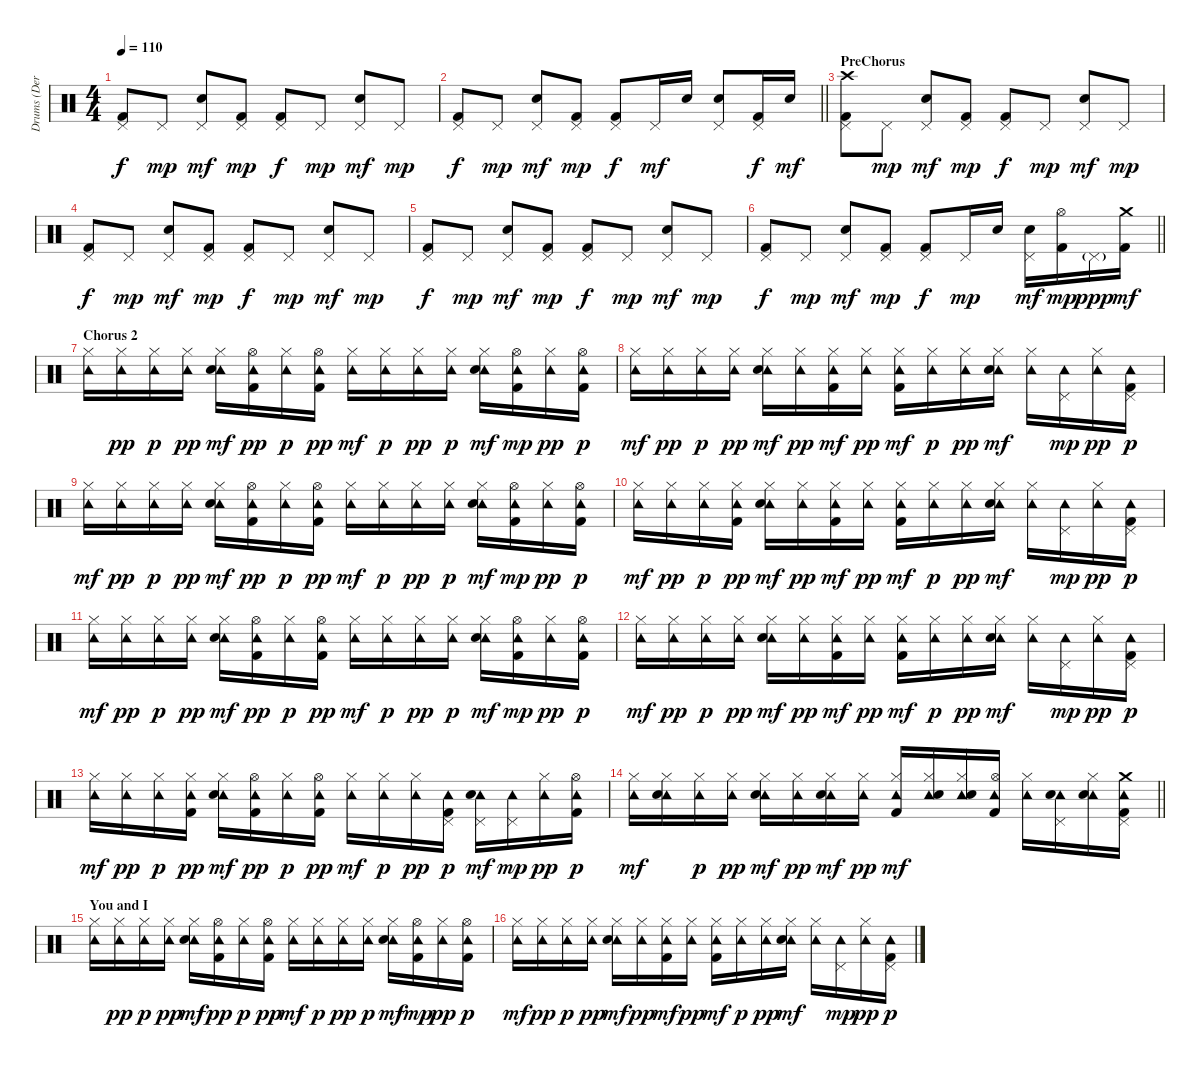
\track ("Drums (Derrick McKenzie)" "Drums (Der") {instrument percussion}
\staff {score}
\articulation defaults
\ts (4 4)
\tempo 110
\clef neutral
\ks c
("Pedal Hi-Hat (hit)" "Kick (hit) 2").8{dy f} "Pedal Hi-Hat (hit)".8{dy mp} ("Pedal Hi-Hat (hit)" "Electric Snare (hit)").8{dy mf} ("Pedal Hi-Hat (hit)" "Kick (hit) 2").8{dy mp} ("Pedal Hi-Hat (hit)" "Kick (hit) 2").8{dy f} "Pedal Hi-Hat (hit)".8{dy mp} ("Pedal Hi-Hat (hit)" "Electric Snare (hit)").8{dy mf} "Pedal Hi-Hat (hit)".8{dy mp} |
\barLineRight lightlight
("Pedal Hi-Hat (hit)" "Kick (hit) 2").8{dy f} "Pedal Hi-Hat (hit)".8{dy mp} ("Pedal Hi-Hat (hit)" "Electric Snare (hit)").8{dy mf} ("Pedal Hi-Hat (hit)" "Kick (hit) 2").8{dy mp} ("Pedal Hi-Hat (hit)" "Kick (hit) 2").8{dy f} "Pedal Hi-Hat (hit)".16{dy mf} "Electric Snare (hit)".16 ("Pedal Hi-Hat (hit)" "Electric Snare (hit)").8 ("Pedal Hi-Hat (hit)" "Kick (hit) 2").16{dy f} "Electric Snare (hit)".16{dy mf} |
\section ("" "PreChorus")
("Pedal Hi-Hat (hit)" "Crash high (hit)" "Kick (hit) 2").8 "Pedal Hi-Hat (hit)".8{dy mp} ("Pedal Hi-Hat (hit)" "Electric Snare (hit)").8{dy mf} ("Pedal Hi-Hat (hit)" "Kick (hit) 2").8{dy mp} ("Pedal Hi-Hat (hit)" "Kick (hit) 2").8{dy f} "Pedal Hi-Hat (hit)".8{dy mp} ("Pedal Hi-Hat (hit)" "Electric Snare (hit)").8{dy mf} "Pedal Hi-Hat (hit)".8{dy mp} |
("Pedal Hi-Hat (hit)" "Kick (hit) 2").8{dy f} "Pedal Hi-Hat (hit)".8{dy mp} ("Pedal Hi-Hat (hit)" "Electric Snare (hit)").8{dy mf} ("Pedal Hi-Hat (hit)" "Kick (hit) 2").8{dy mp} ("Pedal Hi-Hat (hit)" "Kick (hit) 2").8{dy f} "Pedal Hi-Hat (hit)".8{dy mp} ("Pedal Hi-Hat (hit)" "Electric Snare (hit)").8{dy mf} "Pedal Hi-Hat (hit)".8{dy mp} |
("Pedal Hi-Hat (hit)" "Kick (hit) 2").8{dy f} "Pedal Hi-Hat (hit)".8{dy mp} ("Pedal Hi-Hat (hit)" "Electric Snare (hit)").8{dy mf} ("Pedal Hi-Hat (hit)" "Kick (hit) 2").8{dy mp} ("Pedal Hi-Hat (hit)" "Kick (hit) 2").8{dy f} "Pedal Hi-Hat (hit)".8{dy mp} ("Pedal Hi-Hat (hit)" "Electric Snare (hit)").8{dy mf} "Pedal Hi-Hat (hit)".8{dy mp} |
\barLineRight lightlight
("Pedal Hi-Hat (hit)" "Kick (hit) 2").8{dy f} "Pedal Hi-Hat (hit)".8{dy mp} ("Pedal Hi-Hat (hit)" "Electric Snare (hit)").8{dy mf} ("Pedal Hi-Hat (hit)" "Kick (hit) 2").8{dy mp} ("Pedal Hi-Hat (hit)" "Kick (hit) 2").8{dy f} "Pedal Hi-Hat (hit)".16{dy mp} "Electric Snare (hit)".16 ("Pedal Hi-Hat (hit)" "Electric Snare (hit)").16{dy mf} ("Hi-Hat (open)" "Kick (hit) 2").16{dy mp} "Pedal Hi-Hat (hit)"{g}.16{dy ppp} ("Crash medium (hit)" "Kick (hit) 2").16{dy mf} |
\section ("" "Chorus 2")
("Hi-Hat (closed)" "Tambourine (hit)").16 ("Hi-Hat (closed)" "Tambourine (hit)").16{dy pp} ("Hi-Hat (closed)" "Tambourine (hit)").16{dy p} ("Hi-Hat (closed)" "Tambourine (hit)").16{dy pp} ("Hi-Hat (closed)" "Tambourine (hit)" "Electric Snare (hit)").16{dy mf} ("Hi-Hat (open)" "Tambourine (hit)" "Kick (hit) 2").16{dy pp} ("Hi-Hat (closed)" "Tambourine (hit)").16{dy p} ("Hi-Hat (open)" "Tambourine (hit)" "Kick (hit) 2").16{dy pp} ("Hi-Hat (closed)" "Tambourine (hit)").16{dy mf} ("Hi-Hat (closed)" "Tambourine (hit)").16{dy p} ("Hi-Hat (closed)" "Tambourine (hit)").16{dy pp} ("Hi-Hat (closed)" "Tambourine (hit)").16{dy p} ("Hi-Hat (closed)" "Tambourine (hit)" "Electric Snare (hit)").16{dy mf} ("Hi-Hat (open)" "Tambourine (hit)" "Kick (hit) 2").16{dy mp} ("Hi-Hat (closed)" "Tambourine (hit)").16{dy pp} ("Hi-Hat (open)" "Tambourine (hit)" "Kick (hit) 2").16{dy p} |
("Hi-Hat (closed)" "Tambourine (hit)").16{dy mf} ("Hi-Hat (closed)" "Tambourine (hit)").16{dy pp} ("Hi-Hat (closed)" "Tambourine (hit)").16{dy p} ("Hi-Hat (closed)" "Tambourine (hit)").16{dy pp} ("Hi-Hat (closed)" "Tambourine (hit)" "Electric Snare (hit)").16{dy mf} ("Hi-Hat (closed)" "Tambourine (hit)").16{dy pp} ("Hi-Hat (closed)" "Tambourine (hit)" "Kick (hit) 2").16{dy mf} ("Hi-Hat (closed)" "Tambourine (hit)").16{dy pp} ("Hi-Hat (closed)" "Tambourine (hit)" "Kick (hit) 2").16{dy mf} ("Hi-Hat (closed)" "Tambourine (hit)").16{dy p} ("Hi-Hat (closed)" "Tambourine (hit)").16{dy pp} ("Hi-Hat (closed)" "Tambourine (hit)" "Electric Snare (hit)").16{dy mf} ("Hi-Hat (closed)" "Tambourine (hit)").16 ("Pedal Hi-Hat (hit)" "Tambourine (hit)").16{dy mp} ("Hi-Hat (closed)" "Tambourine (hit)").16{dy pp} ("Pedal Hi-Hat (hit)" "Tambourine (hit)" "Kick (hit) 2").16{dy p} |
("Hi-Hat (closed)" "Tambourine (hit)").16{dy mf} ("Hi-Hat (closed)" "Tambourine (hit)").16{dy pp} ("Hi-Hat (closed)" "Tambourine (hit)").16{dy p} ("Hi-Hat (closed)" "Tambourine (hit)").16{dy pp} ("Hi-Hat (closed)" "Tambourine (hit)" "Electric Snare (hit)").16{dy mf} ("Hi-Hat (open)" "Tambourine (hit)" "Kick (hit) 2").16{dy pp} ("Hi-Hat (closed)" "Tambourine (hit)").16{dy p} ("Hi-Hat (open)" "Tambourine (hit)" "Kick (hit) 2").16{dy pp} ("Hi-Hat (closed)" "Tambourine (hit)").16{dy mf} ("Hi-Hat (closed)" "Tambourine (hit)").16{dy p} ("Hi-Hat (closed)" "Tambourine (hit)").16{dy pp} ("Hi-Hat (closed)" "Tambourine (hit)").16{dy p} ("Hi-Hat (closed)" "Tambourine (hit)" "Electric Snare (hit)").16{dy mf} ("Hi-Hat (open)" "Tambourine (hit)" "Kick (hit) 2").16{dy mp} ("Hi-Hat (closed)" "Tambourine (hit)").16{dy pp} ("Hi-Hat (open)" "Tambourine (hit)" "Kick (hit) 2").16{dy p} |
("Hi-Hat (closed)" "Tambourine (hit)").16{dy mf} ("Hi-Hat (closed)" "Tambourine (hit)").16{dy pp} ("Hi-Hat (closed)" "Tambourine (hit)").16{dy p} ("Hi-Hat (closed)" "Tambourine (hit)" "Kick (hit) 2").16{dy pp} ("Hi-Hat (closed)" "Tambourine (hit)" "Electric Snare (hit)").16{dy mf} ("Hi-Hat (closed)" "Tambourine (hit)").16{dy pp} ("Hi-Hat (closed)" "Tambourine (hit)" "Kick (hit) 2").16{dy mf} ("Hi-Hat (closed)" "Tambourine (hit)").16{dy pp} ("Hi-Hat (closed)" "Tambourine (hit)" "Kick (hit) 2").16{dy mf} ("Hi-Hat (closed)" "Tambourine (hit)").16{dy p} ("Hi-Hat (closed)" "Tambourine (hit)").16{dy pp} ("Hi-Hat (closed)" "Tambourine (hit)" "Electric Snare (hit)").16{dy mf} ("Hi-Hat (closed)" "Tambourine (hit)").16 ("Pedal Hi-Hat (hit)" "Tambourine (hit)").16{dy mp} ("Hi-Hat (closed)" "Tambourine (hit)").16{dy pp} ("Pedal Hi-Hat (hit)" "Tambourine (hit)" "Kick (hit) 2").16{dy p} |
("Hi-Hat (closed)" "Tambourine (hit)").16{dy mf} ("Hi-Hat (closed)" "Tambourine (hit)").16{dy pp} ("Hi-Hat (closed)" "Tambourine (hit)").16{dy p} ("Hi-Hat (closed)" "Tambourine (hit)").16{dy pp} ("Hi-Hat (closed)" "Tambourine (hit)" "Electric Snare (hit)").16{dy mf} ("Hi-Hat (open)" "Tambourine (hit)" "Kick (hit) 2").16{dy pp} ("Hi-Hat (closed)" "Tambourine (hit)").16{dy p} ("Hi-Hat (open)" "Tambourine (hit)" "Kick (hit) 2").16{dy pp} ("Hi-Hat (closed)" "Tambourine (hit)").16{dy mf} ("Hi-Hat (closed)" "Tambourine (hit)").16{dy p} ("Hi-Hat (closed)" "Tambourine (hit)").16{dy pp} ("Hi-Hat (closed)" "Tambourine (hit)").16{dy p} ("Hi-Hat (closed)" "Tambourine (hit)" "Electric Snare (hit)").16{dy mf} ("Hi-Hat (open)" "Tambourine (hit)" "Kick (hit) 2").16{dy mp} ("Hi-Hat (closed)" "Tambourine (hit)").16{dy pp} ("Hi-Hat (open)" "Tambourine (hit)" "Kick (hit) 2").16{dy p} |
("Hi-Hat (closed)" "Tambourine (hit)").16{dy mf} ("Hi-Hat (closed)" "Tambourine (hit)").16{dy pp} ("Hi-Hat (closed)" "Tambourine (hit)").16{dy p} ("Hi-Hat (closed)" "Tambourine (hit)").16{dy pp} ("Hi-Hat (closed)" "Tambourine (hit)" "Electric Snare (hit)").16{dy mf} ("Hi-Hat (closed)" "Tambourine (hit)").16{dy pp} ("Hi-Hat (closed)" "Tambourine (hit)" "Kick (hit) 2").16{dy mf} ("Hi-Hat (closed)" "Tambourine (hit)").16{dy pp} ("Hi-Hat (closed)" "Tambourine (hit)" "Kick (hit) 2").16{dy mf} ("Hi-Hat (closed)" "Tambourine (hit)").16{dy p} ("Hi-Hat (closed)" "Tambourine (hit)").16{dy pp} ("Hi-Hat (closed)" "Tambourine (hit)" "Electric Snare (hit)").16{dy mf} ("Hi-Hat (closed)" "Tambourine (hit)").16 ("Pedal Hi-Hat (hit)" "Tambourine (hit)").16{dy mp} ("Hi-Hat (closed)" "Tambourine (hit)").16{dy pp} ("Pedal Hi-Hat (hit)" "Tambourine (hit)" "Kick (hit) 2").16{dy p} |
("Hi-Hat (closed)" "Tambourine (hit)").16{dy mf} ("Hi-Hat (closed)" "Tambourine (hit)").16{dy pp} ("Hi-Hat (closed)" "Tambourine (hit)").16{dy p} ("Hi-Hat (closed)" "Tambourine (hit)" "Kick (hit) 2").16{dy pp} ("Hi-Hat (closed)" "Tambourine (hit)" "Electric Snare (hit)").16{dy mf} ("Hi-Hat (open)" "Tambourine (hit)" "Kick (hit) 2").16{dy pp} ("Hi-Hat (closed)" "Tambourine (hit)").16{dy p} ("Hi-Hat (open)" "Tambourine (hit)" "Kick (hit) 2").16{dy pp} ("Hi-Hat (closed)" "Tambourine (hit)").16{dy mf} ("Hi-Hat (closed)" "Tambourine (hit)").16{dy p} ("Hi-Hat (closed)" "Tambourine (hit)").16{dy pp} ("Pedal Hi-Hat (hit)" "Tambourine (hit)" "Kick (hit) 2").16{dy p} ("Pedal Hi-Hat (hit)" "Tambourine (hit)" "Electric Snare (hit)").16{dy mf} ("Pedal Hi-Hat (hit)" "Tambourine (hit)").16{dy mp} ("Hi-Hat (closed)" "Tambourine (hit)").16{dy pp} ("Hi-Hat (open)" "Tambourine (hit)" "Kick (hit) 2").16{dy p} |
\barLineRight lightlight
("Hi-Hat (closed)" "Tambourine (hit)").16{dy mf} ("Hi-Hat (closed)" "Tambourine (hit)" "Electric Snare (hit)").16 ("Hi-Hat (closed)" "Tambourine (hit)").16{dy p} ("Hi-Hat (closed)" "Tambourine (hit)").16{dy pp} ("Hi-Hat (closed)" "Tambourine (hit)" "Electric Snare (hit)").16{dy mf} ("Hi-Hat (closed)" "Tambourine (hit)").16{dy pp} ("Hi-Hat (closed)" "Tambourine (hit)" "Electric Snare (hit)").16{dy mf} ("Hi-Hat (closed)" "Tambourine (hit)").16{dy pp} ("Hi-Hat (closed)" "Tambourine (hit)" "Kick (hit) 2").16{dy mf} ("Hi-Hat (closed)" "Tambourine (hit)" "Electric Snare (hit)").16 ("Hi-Hat (closed)" "Tambourine (hit)" "Electric Snare (hit)").16 ("Hi-Hat (open)" "Tambourine (hit)" "Kick (hit) 2").16 ("Hi-Hat (closed)" "Tambourine (hit)").16 ("Pedal Hi-Hat (hit)" "Tambourine (hit)" "Electric Snare (hit)").16 ("Hi-Hat (closed)" "Tambourine (hit)" "Electric Snare (hit)").16 ("Pedal Hi-Hat (hit)" "Tambourine (hit)" "Crash medium (hit)" "Kick (hit) 2").16 |
\section ("" "You and I")
("Hi-Hat (closed)" "Tambourine (hit)").16 ("Hi-Hat (closed)" "Tambourine (hit)").16{dy pp} ("Hi-Hat (closed)" "Tambourine (hit)").16{dy p} ("Hi-Hat (closed)" "Tambourine (hit)").16{dy pp} ("Hi-Hat (closed)" "Tambourine (hit)" "Electric Snare (hit)").16{dy mf} ("Hi-Hat (open)" "Tambourine (hit)" "Kick (hit) 2").16{dy pp} ("Hi-Hat (closed)" "Tambourine (hit)").16{dy p} ("Hi-Hat (open)" "Tambourine (hit)" "Kick (hit) 2").16{dy pp} ("Hi-Hat (closed)" "Tambourine (hit)").16{dy mf} ("Hi-Hat (closed)" "Tambourine (hit)").16{dy p} ("Hi-Hat (closed)" "Tambourine (hit)").16{dy pp} ("Hi-Hat (closed)" "Tambourine (hit)").16{dy p} ("Hi-Hat (closed)" "Tambourine (hit)" "Electric Snare (hit)").16{dy mf} ("Hi-Hat (open)" "Tambourine (hit)" "Kick (hit) 2").16{dy mp} ("Hi-Hat (closed)" "Tambourine (hit)").16{dy pp} ("Hi-Hat (open)" "Tambourine (hit)" "Kick (hit) 2").16{dy p} |
("Hi-Hat (closed)" "Tambourine (hit)").16{dy mf} ("Hi-Hat (closed)" "Tambourine (hit)").16{dy pp} ("Hi-Hat (closed)" "Tambourine (hit)").16{dy p} ("Hi-Hat (closed)" "Tambourine (hit)").16{dy pp} ("Hi-Hat (closed)" "Tambourine (hit)" "Electric Snare (hit)").16{dy mf} ("Hi-Hat (closed)" "Tambourine (hit)").16{dy pp} ("Hi-Hat (closed)" "Tambourine (hit)" "Kick (hit) 2").16{dy mf} ("Hi-Hat (closed)" "Tambourine (hit)").16{dy pp} ("Hi-Hat (closed)" "Tambourine (hit)" "Kick (hit) 2").16{dy mf} ("Hi-Hat (closed)" "Tambourine (hit)").16{dy p} ("Hi-Hat (closed)" "Tambourine (hit)").16{dy pp} ("Hi-Hat (closed)" "Tambourine (hit)" "Electric Snare (hit)").16{dy mf} ("Hi-Hat (closed)" "Tambourine (hit)").16 ("Pedal Hi-Hat (hit)" "Tambourine (hit)").16{dy mp} ("Hi-Hat (closed)" "Tambourine (hit)").16{dy pp} ("Pedal Hi-Hat (hit)" "Tambourine (hit)" "Kick (hit) 2").16{dy p}
